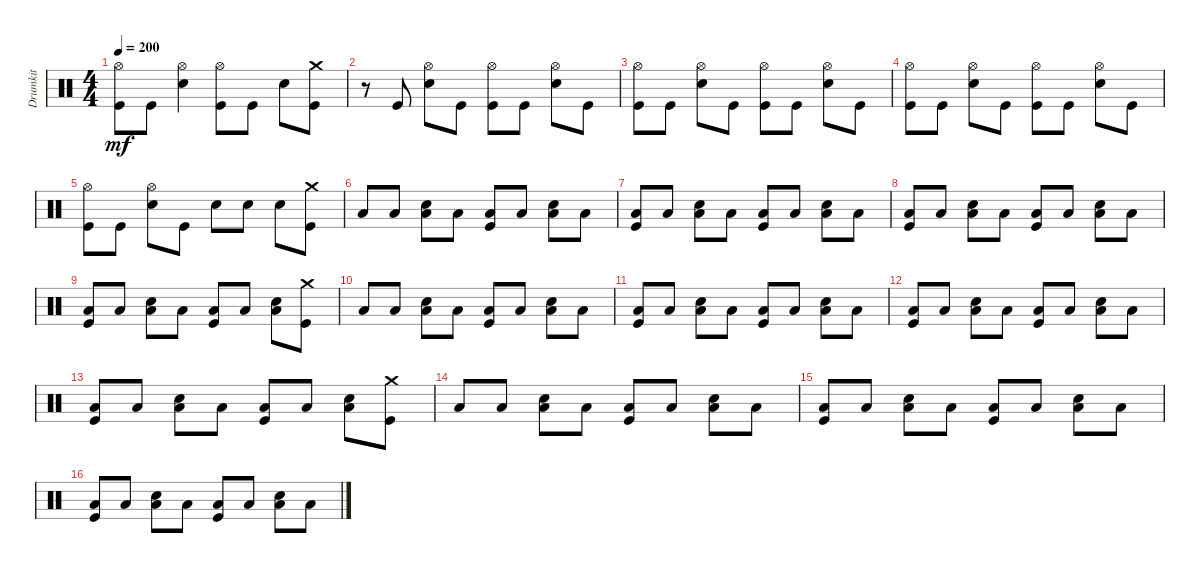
\track ("Drumkit" "Drumkit") {instrument percussion}
\staff {score}
\articulation defaults
\ts (4 4)
\tempo 200
\clef neutral
\ks c
("Kick (hit)" "Hi-Hat (open)").8{dy mf} "Kick (hit)".8 ("Hi-Hat (open)" "Snare (hit) 2").4 ("Hi-Hat (open)" "Kick (hit)").8 "Kick (hit)".8 "Snare (hit) 2".8 ("Kick (hit)" "Crash medium (hit)").8 |
r.8 "Kick (hit)".8 ("Hi-Hat (open)" "Snare (hit) 2").8 "Kick (hit)".8 ("Kick (hit)" "Hi-Hat (open)").8 "Kick (hit)".8 ("Snare (hit) 2" "Hi-Hat (open)").8 "Kick (hit)".8 |
("Kick (hit)" "Hi-Hat (open)").8 "Kick (hit)".8 ("Hi-Hat (open)" "Snare (hit) 2").8 "Kick (hit)".8 ("Kick (hit)" "Hi-Hat (open)").8 "Kick (hit)".8 ("Snare (hit) 2" "Hi-Hat (open)").8 "Kick (hit)".8 |
("Kick (hit)" "Hi-Hat (open)").8 "Kick (hit)".8 ("Hi-Hat (open)" "Snare (hit) 2").8 "Kick (hit)".8 ("Kick (hit)" "Hi-Hat (open)").8 "Kick (hit)".8 ("Snare (hit) 2" "Hi-Hat (open)").8 "Kick (hit)".8 |
("Kick (hit)" "Hi-Hat (open)").8 "Kick (hit)".8 ("Hi-Hat (open)" "Snare (hit) 2").8 "Kick (hit)".8 "Snare (hit) 2".8 "Snare (hit) 2".8 "Snare (hit) 2".8 ("Kick (hit)" "Crash medium (hit)").8 |
"Low Floor Tom (hit)".8 "Low Floor Tom (hit)".8 ("Low Floor Tom (hit)" "Snare (hit) 2").8 "Low Floor Tom (hit)".8 ("Low Floor Tom (hit)" "Kick (hit)").8 "Low Floor Tom (hit)".8 ("Low Floor Tom (hit)" "Snare (hit) 2").8 "Low Floor Tom (hit)".8 |
("Low Floor Tom (hit)" "Kick (hit)").8 "Low Floor Tom (hit)".8 ("Low Floor Tom (hit)" "Snare (hit) 2").8 "Low Floor Tom (hit)".8 ("Low Floor Tom (hit)" "Kick (hit)").8 "Low Floor Tom (hit)".8 ("Low Floor Tom (hit)" "Snare (hit) 2").8 "Low Floor Tom (hit)".8 |
("Low Floor Tom (hit)" "Kick (hit)").8 "Low Floor Tom (hit)".8 ("Low Floor Tom (hit)" "Snare (hit) 2").8 "Low Floor Tom (hit)".8 ("Low Floor Tom (hit)" "Kick (hit)").8 "Low Floor Tom (hit)".8 ("Low Floor Tom (hit)" "Snare (hit) 2").8 "Low Floor Tom (hit)".8 |
("Low Floor Tom (hit)" "Kick (hit)").8 "Low Floor Tom (hit)".8 ("Low Floor Tom (hit)" "Snare (hit) 2").8 "Low Floor Tom (hit)".8 ("Low Floor Tom (hit)" "Kick (hit)").8 "Low Floor Tom (hit)".8 ("Low Floor Tom (hit)" "Snare (hit) 2").8 ("Kick (hit)" "Crash medium (hit)").8 |
"Low Floor Tom (hit)".8 "Low Floor Tom (hit)".8 ("Low Floor Tom (hit)" "Snare (hit) 2").8 "Low Floor Tom (hit)".8 ("Low Floor Tom (hit)" "Kick (hit)").8 "Low Floor Tom (hit)".8 ("Low Floor Tom (hit)" "Snare (hit) 2").8 "Low Floor Tom (hit)".8 |
("Low Floor Tom (hit)" "Kick (hit)").8 "Low Floor Tom (hit)".8 ("Low Floor Tom (hit)" "Snare (hit) 2").8 "Low Floor Tom (hit)".8 ("Low Floor Tom (hit)" "Kick (hit)").8 "Low Floor Tom (hit)".8 ("Low Floor Tom (hit)" "Snare (hit) 2").8 "Low Floor Tom (hit)".8 |
("Low Floor Tom (hit)" "Kick (hit)").8 "Low Floor Tom (hit)".8 ("Low Floor Tom (hit)" "Snare (hit) 2").8 "Low Floor Tom (hit)".8 ("Low Floor Tom (hit)" "Kick (hit)").8 "Low Floor Tom (hit)".8 ("Low Floor Tom (hit)" "Snare (hit) 2").8 "Low Floor Tom (hit)".8 |
("Low Floor Tom (hit)" "Kick (hit)").8 "Low Floor Tom (hit)".8 ("Low Floor Tom (hit)" "Snare (hit) 2").8 "Low Floor Tom (hit)".8 ("Low Floor Tom (hit)" "Kick (hit)").8 "Low Floor Tom (hit)".8 ("Low Floor Tom (hit)" "Snare (hit) 2").8 ("Kick (hit)" "Crash medium (hit)").8 |
"Low Floor Tom (hit)".8 "Low Floor Tom (hit)".8 ("Low Floor Tom (hit)" "Snare (hit) 2").8 "Low Floor Tom (hit)".8 ("Low Floor Tom (hit)" "Kick (hit)").8 "Low Floor Tom (hit)".8 ("Low Floor Tom (hit)" "Snare (hit) 2").8 "Low Floor Tom (hit)".8 |
("Low Floor Tom (hit)" "Kick (hit)").8 "Low Floor Tom (hit)".8 ("Low Floor Tom (hit)" "Snare (hit) 2").8 "Low Floor Tom (hit)".8 ("Low Floor Tom (hit)" "Kick (hit)").8 "Low Floor Tom (hit)".8 ("Low Floor Tom (hit)" "Snare (hit) 2").8 "Low Floor Tom (hit)".8 |
("Low Floor Tom (hit)" "Kick (hit)").8 "Low Floor Tom (hit)".8 ("Low Floor Tom (hit)" "Snare (hit) 2").8 "Low Floor Tom (hit)".8 ("Low Floor Tom (hit)" "Kick (hit)").8 "Low Floor Tom (hit)".8 ("Low Floor Tom (hit)" "Snare (hit) 2").8 "Low Floor Tom (hit)".8
